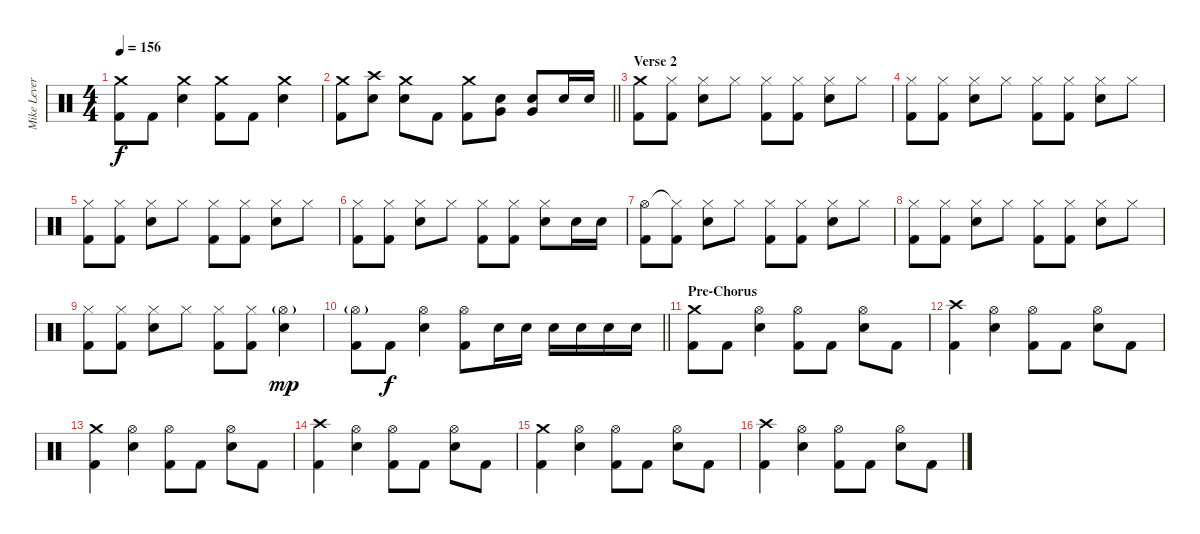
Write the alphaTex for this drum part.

\track ("Mike Leverence - Drums" "Mike Lever") {instrument percussion}
\staff {score}
\articulation defaults
\ts (4 4)
\tempo 156
\clef neutral
\ks c
("Crash medium (hit)" "Kick (hit) 2").8{dy f} "Kick (hit) 2".8 ("Crash medium (hit)" "Electric Snare (hit)").4 ("Crash medium (hit)" "Kick (hit) 2").8 "Kick (hit) 2".8 ("Crash medium (hit)" "Electric Snare (hit)").4 |
\barLineRight lightlight
("Crash medium (hit)" "Kick (hit) 2").8 ("Crash high (hit)" "Electric Snare (hit)").8 ("Crash medium (hit)" "Electric Snare (hit)").8 "Kick (hit) 2".8 ("Crash medium (hit)" "Kick (hit) 2").8 ("Very Low Tom (hit)" "Electric Snare (hit)").8 ("Very Low Tom (hit)" "Electric Snare (hit)").8 "Electric Snare (hit)".16 "Electric Snare (hit)".16 |
\section ("" "Verse 2")
("Crash medium (hit)" "Kick (hit) 2").8 ("Hi-Hat (closed)" "Kick (hit) 2").8 ("Hi-Hat (closed)" "Electric Snare (hit)").8 "Hi-Hat (closed)".8 ("Hi-Hat (closed)" "Kick (hit) 2").8 ("Hi-Hat (closed)" "Kick (hit) 2").8 ("Hi-Hat (closed)" "Electric Snare (hit)").8 "Hi-Hat (closed)".8 |
("Hi-Hat (closed)" "Kick (hit) 2").8 ("Hi-Hat (closed)" "Kick (hit) 2").8 ("Hi-Hat (closed)" "Electric Snare (hit)").8 "Hi-Hat (closed)".8 ("Hi-Hat (closed)" "Kick (hit) 2").8 ("Hi-Hat (closed)" "Kick (hit) 2").8 ("Hi-Hat (closed)" "Electric Snare (hit)").8 "Hi-Hat (closed)".8 |
("Hi-Hat (closed)" "Kick (hit) 2").8 ("Hi-Hat (closed)" "Kick (hit) 2").8 ("Hi-Hat (closed)" "Electric Snare (hit)").8 "Hi-Hat (closed)".8 ("Hi-Hat (closed)" "Kick (hit) 2").8 ("Hi-Hat (closed)" "Kick (hit) 2").8 ("Hi-Hat (closed)" "Electric Snare (hit)").8 "Hi-Hat (closed)".8 |
("Hi-Hat (closed)" "Kick (hit) 2").8 ("Hi-Hat (closed)" "Kick (hit) 2").8 ("Hi-Hat (closed)" "Electric Snare (hit)").8 "Hi-Hat (closed)".8 ("Hi-Hat (closed)" "Kick (hit) 2").8 ("Hi-Hat (closed)" "Kick (hit) 2").8 ("Hi-Hat (closed)" "Electric Snare (hit)").8 "Electric Snare (hit)".16 "Electric Snare (hit)".16 |
("Hi-Hat (open)" "Kick (hit) 2").8 ("Hi-Hat (closed)"{t} "Kick (hit) 2").8 ("Hi-Hat (closed)" "Electric Snare (hit)").8 "Hi-Hat (closed)".8 ("Hi-Hat (closed)" "Kick (hit) 2").8 ("Hi-Hat (closed)" "Kick (hit) 2").8 ("Hi-Hat (closed)" "Electric Snare (hit)").8 "Hi-Hat (closed)".8 |
("Hi-Hat (closed)" "Kick (hit) 2").8 ("Hi-Hat (closed)" "Kick (hit) 2").8 ("Hi-Hat (closed)" "Electric Snare (hit)").8 "Hi-Hat (closed)".8 ("Hi-Hat (closed)" "Kick (hit) 2").8 ("Hi-Hat (closed)" "Kick (hit) 2").8 ("Hi-Hat (closed)" "Electric Snare (hit)").8 "Hi-Hat (closed)".8 |
("Hi-Hat (closed)" "Kick (hit) 2").8 ("Hi-Hat (closed)" "Kick (hit) 2").8 ("Hi-Hat (closed)" "Electric Snare (hit)").8 "Hi-Hat (closed)".8 ("Hi-Hat (closed)" "Kick (hit) 2").8 ("Hi-Hat (closed)" "Kick (hit) 2").8 ("Hi-Hat (open)"{g} "Electric Snare (hit)").4{dy mp} |
\barLineRight lightlight
("Hi-Hat (open)"{g} "Kick (hit) 2").8 "Kick (hit) 2".8{dy f} ("Hi-Hat (open)" "Electric Snare (hit)").4 ("Hi-Hat (open)" "Kick (hit) 2").8 "Electric Snare (hit)".16 "Electric Snare (hit)".16 "Electric Snare (hit)".16 "Electric Snare (hit)".16 "Electric Snare (hit)".16 "Electric Snare (hit)".16 |
\section ("" "Pre-Chorus")
("Crash medium (hit)" "Kick (hit) 2").8 "Kick (hit) 2".8 ("Hi-Hat (open)" "Electric Snare (hit)").4 ("Hi-Hat (open)" "Kick (hit) 2").8 "Kick (hit) 2".8 ("Hi-Hat (open)" "Electric Snare (hit)").8 "Kick (hit) 2".8 |
("Crash high (hit)" "Kick (hit) 2").4 ("Hi-Hat (open)" "Electric Snare (hit)").4 ("Hi-Hat (open)" "Kick (hit) 2").8 "Kick (hit) 2".8 ("Hi-Hat (open)" "Electric Snare (hit)").8 "Kick (hit) 2".8 |
("Crash medium (hit)" "Kick (hit) 2").4 ("Hi-Hat (open)" "Electric Snare (hit)").4 ("Hi-Hat (open)" "Kick (hit) 2").8 "Kick (hit) 2".8 ("Hi-Hat (open)" "Electric Snare (hit)").8 "Kick (hit) 2".8 |
("Crash high (hit)" "Kick (hit) 2").4 ("Hi-Hat (open)" "Electric Snare (hit)").4 ("Hi-Hat (open)" "Kick (hit) 2").8 "Kick (hit) 2".8 ("Hi-Hat (open)" "Electric Snare (hit)").8 "Kick (hit) 2".8 |
("Crash medium (hit)" "Kick (hit) 2").4 ("Hi-Hat (open)" "Electric Snare (hit)").4 ("Hi-Hat (open)" "Kick (hit) 2").8 "Kick (hit) 2".8 ("Hi-Hat (open)" "Electric Snare (hit)").8 "Kick (hit) 2".8 |
("Crash high (hit)" "Kick (hit) 2").4 ("Hi-Hat (open)" "Electric Snare (hit)").4 ("Hi-Hat (open)" "Kick (hit) 2").8 "Kick (hit) 2".8 ("Hi-Hat (open)" "Electric Snare (hit)").8 "Kick (hit) 2".8
